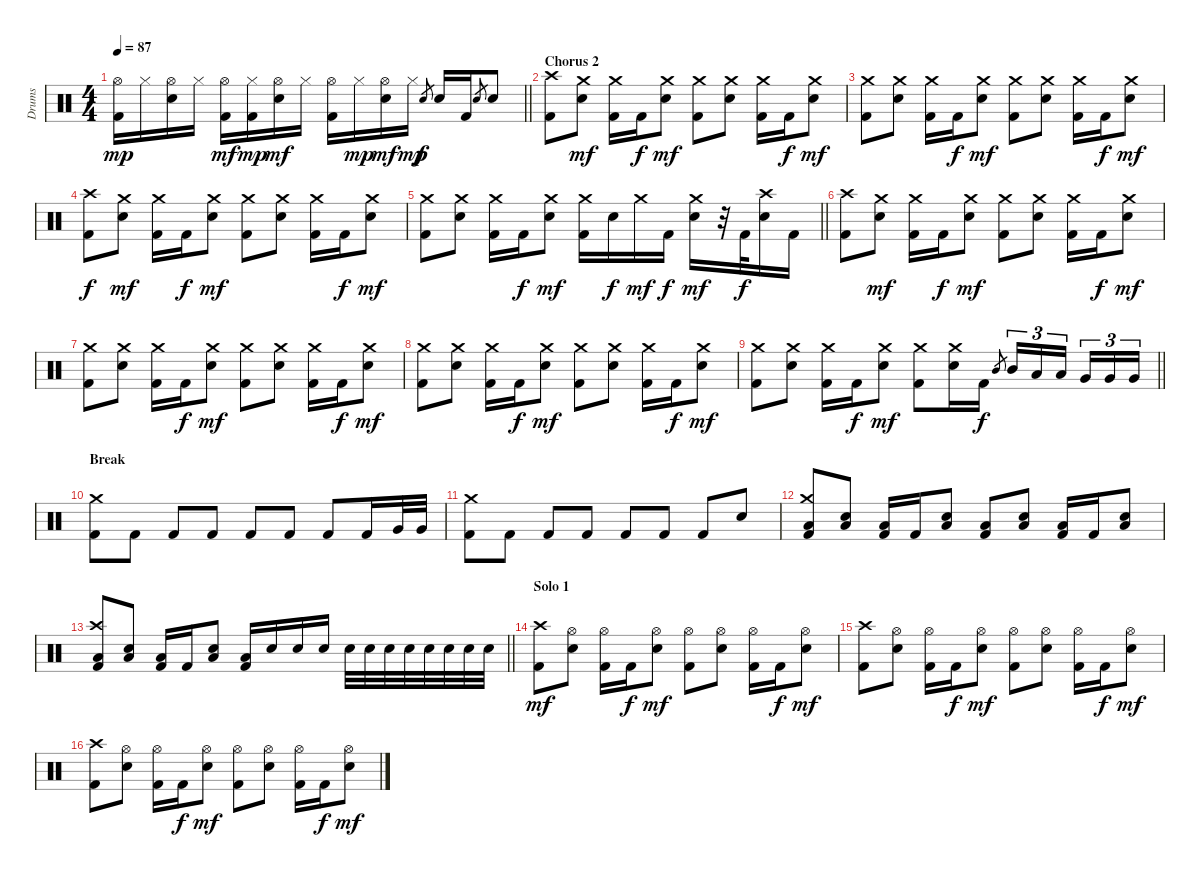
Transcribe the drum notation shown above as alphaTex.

\track ("Drums" "Drums") {instrument percussion}
\staff {score}
\articulation defaults
\ts (4 4)
\tempo 87
\clef neutral
\barLineRight lightlight
\ks c
("Hi-Hat (open)" "Kick (hit) 2").16{dy mp} "Hi-Hat (closed)".16 ("Hi-Hat (open)" "Electric Snare (hit)").16 "Hi-Hat (closed)".16 ("Hi-Hat (open)" "Kick (hit) 2").16{dy mf} ("Hi-Hat (closed)" "Kick (hit) 2").16{dy mp} ("Hi-Hat (open)" "Electric Snare (hit)").16{dy mf} "Hi-Hat (closed)".16 ("Hi-Hat (open)" "Kick (hit) 2").16 "Hi-Hat (closed)".16{dy mp} ("Hi-Hat (open)" "Electric Snare (hit)").16{dy mf} "Hi-Hat (closed)".16{dy mp} "Electric Snare (hit)".8{gr dy f} "Electric Snare (hit)".16 "Kick (hit) 2".16 "Electric Snare (hit)".8{gr} "Electric Snare (hit)".8 |
\section ("" "Chorus 2")
("Crash high (hit)" "Kick (hit) 2").8 ("Crash medium (hit)" "Electric Snare (hit)").8{dy mf} ("Crash medium (hit)" "Kick (hit) 2").16 "Kick (hit) 2".16{dy f} ("Crash medium (hit)" "Electric Snare (hit)").8{dy mf} ("Crash medium (hit)" "Kick (hit) 2").8 ("Crash medium (hit)" "Electric Snare (hit)").8 ("Crash medium (hit)" "Kick (hit) 2").16 "Kick (hit) 2".16{dy f} ("Crash medium (hit)" "Electric Snare (hit)").8{dy mf} |
("Crash medium (hit)" "Kick (hit) 2").8 ("Crash medium (hit)" "Electric Snare (hit)").8 ("Crash medium (hit)" "Kick (hit) 2").16 "Kick (hit) 2".16{dy f} ("Crash medium (hit)" "Electric Snare (hit)").8{dy mf} ("Crash medium (hit)" "Kick (hit) 2").8 ("Crash medium (hit)" "Electric Snare (hit)").8 ("Crash medium (hit)" "Kick (hit) 2").16 "Kick (hit) 2".16{dy f} ("Crash medium (hit)" "Electric Snare (hit)").8{dy mf} |
("Crash high (hit)" "Kick (hit) 2").8{dy f} ("Crash medium (hit)" "Electric Snare (hit)").8{dy mf} ("Crash medium (hit)" "Kick (hit) 2").16 "Kick (hit) 2".16{dy f} ("Crash medium (hit)" "Electric Snare (hit)").8{dy mf} ("Crash medium (hit)" "Kick (hit) 2").8 ("Crash medium (hit)" "Electric Snare (hit)").8 ("Crash medium (hit)" "Kick (hit) 2").16 "Kick (hit) 2".16{dy f} ("Crash medium (hit)" "Electric Snare (hit)").8{dy mf} |
\barLineRight lightlight
("Crash medium (hit)" "Kick (hit) 2").8 ("Crash medium (hit)" "Electric Snare (hit)").8 ("Crash medium (hit)" "Kick (hit) 2").16 "Kick (hit) 2".16{dy f} ("Crash medium (hit)" "Electric Snare (hit)").8{dy mf} ("Crash medium (hit)" "Kick (hit) 2").16 "Electric Snare (hit)".16{dy f} "Crash medium (hit)".16{dy mf} "Kick (hit) 2".16{dy f} ("Crash medium (hit)" "Electric Snare (hit)").16{dy mf} r.32 "Kick (hit) 2".32{dy f} ("Crash high (hit)" "Electric Snare (hit)").16 "Kick (hit) 2".16 |
("Crash high (hit)" "Kick (hit) 2").8 ("Crash medium (hit)" "Electric Snare (hit)").8{dy mf} ("Crash medium (hit)" "Kick (hit) 2").16 "Kick (hit) 2".16{dy f} ("Crash medium (hit)" "Electric Snare (hit)").8{dy mf} ("Crash medium (hit)" "Kick (hit) 2").8 ("Crash medium (hit)" "Electric Snare (hit)").8 ("Crash medium (hit)" "Kick (hit) 2").16 "Kick (hit) 2".16{dy f} ("Crash medium (hit)" "Electric Snare (hit)").8{dy mf} |
("Crash medium (hit)" "Kick (hit) 2").8 ("Crash medium (hit)" "Electric Snare (hit)").8 ("Crash medium (hit)" "Kick (hit) 2").16 "Kick (hit) 2".16{dy f} ("Crash medium (hit)" "Electric Snare (hit)").8{dy mf} ("Crash medium (hit)" "Kick (hit) 2").8 ("Crash medium (hit)" "Electric Snare (hit)").8 ("Crash medium (hit)" "Kick (hit) 2").16 "Kick (hit) 2".16{dy f} ("Crash medium (hit)" "Electric Snare (hit)").8{dy mf} |
("Crash medium (hit)" "Kick (hit) 2").8 ("Crash medium (hit)" "Electric Snare (hit)").8 ("Crash medium (hit)" "Kick (hit) 2").16 "Kick (hit) 2".16{dy f} ("Crash medium (hit)" "Electric Snare (hit)").8{dy mf} ("Crash medium (hit)" "Kick (hit) 2").8 ("Crash medium (hit)" "Electric Snare (hit)").8 ("Crash medium (hit)" "Kick (hit) 2").16 "Kick (hit) 2".16{dy f} ("Crash medium (hit)" "Electric Snare (hit)").8{dy mf} |
\barLineRight lightlight
("Crash medium (hit)" "Kick (hit) 2").8 ("Crash medium (hit)" "Electric Snare (hit)").8 ("Crash medium (hit)" "Kick (hit) 2").16 "Kick (hit) 2".16{dy f} ("Crash medium (hit)" "Electric Snare (hit)").8{dy mf} ("Crash medium (hit)" "Kick (hit) 2").8 ("Crash medium (hit)" "Electric Snare (hit)").16 "Kick (hit) 2".16{dy f} "Mid Tom (hit)".8{gr} "Mid Tom (hit)".16{tu (3 2)} "Low Tom (hit)".16{tu (3 2)} "Low Tom (hit)".16{tu (3 2) beam splitsecondary} "Very Low Tom (hit)".16{tu (3 2)} "Very Low Tom (hit)".16{tu (3 2)} "Very Low Tom (hit)".16{tu (3 2)} |
\section ("" "Break")
("Crash medium (hit)" "Kick (hit) 2").8 "Kick (hit) 2".8 "Kick (hit) 2".8 "Kick (hit) 2".8 "Kick (hit) 2".8 "Kick (hit) 2".8 "Kick (hit) 2".8 "Kick (hit) 2".16 "Very Low Tom (hit)".32 "Very Low Tom (hit)".32 |
("Crash medium (hit)" "Kick (hit) 2").8 "Kick (hit) 2".8 "Kick (hit) 2".8 "Kick (hit) 2".8 "Kick (hit) 2".8 "Kick (hit) 2".8 "Kick (hit) 2".8 "Electric Snare (hit)".8 |
("Crash medium (hit)" "Low Floor Tom (hit)" "Kick (hit) 2").8 ("Low Floor Tom (hit)" "Electric Snare (hit)").8 ("Low Floor Tom (hit)" "Kick (hit) 2").16 "Kick (hit) 2".16 ("Low Floor Tom (hit)" "Electric Snare (hit)").8 ("Low Floor Tom (hit)" "Kick (hit) 2").8 ("Low Floor Tom (hit)" "Electric Snare (hit)").8 ("Low Floor Tom (hit)" "Kick (hit) 2").16 "Kick (hit) 2".16 ("Low Floor Tom (hit)" "Electric Snare (hit)").8 |
\barLineRight lightlight
("Crash high (hit)" "Low Floor Tom (hit)" "Kick (hit) 2").8 ("Low Floor Tom (hit)" "Electric Snare (hit)").8 ("Low Floor Tom (hit)" "Kick (hit) 2").16 "Kick (hit) 2".16 ("Low Floor Tom (hit)" "Electric Snare (hit)").8 ("Low Floor Tom (hit)" "Kick (hit) 2").16 "Electric Snare (hit)".16 "Electric Snare (hit)".16 "Electric Snare (hit)".16 "Electric Snare (hit)".32 "Electric Snare (hit)".32 "Electric Snare (hit)".32 "Electric Snare (hit)".32 "Electric Snare (hit)".32 "Electric Snare (hit)".32 "Electric Snare (hit)".32 "Electric Snare (hit)".32 |
\section ("" "Solo 1")
("Crash high (hit)" "Kick (hit) 2").8{dy mf} ("Hi-Hat (open)" "Electric Snare (hit)").8 ("Hi-Hat (open)" "Kick (hit) 2").16 "Kick (hit) 2".16{dy f} ("Hi-Hat (open)" "Electric Snare (hit)").8{dy mf} ("Hi-Hat (open)" "Kick (hit) 2").8 ("Hi-Hat (open)" "Electric Snare (hit)").8 ("Hi-Hat (open)" "Kick (hit) 2").16 "Kick (hit) 2".16{dy f} ("Hi-Hat (open)" "Electric Snare (hit)").8{dy mf} |
("Crash high (hit)" "Kick (hit) 2").8 ("Hi-Hat (open)" "Electric Snare (hit)").8 ("Hi-Hat (open)" "Kick (hit) 2").16 "Kick (hit) 2".16{dy f} ("Hi-Hat (open)" "Electric Snare (hit)").8{dy mf} ("Hi-Hat (open)" "Kick (hit) 2").8 ("Hi-Hat (open)" "Electric Snare (hit)").8 ("Hi-Hat (open)" "Kick (hit) 2").16 "Kick (hit) 2".16{dy f} ("Hi-Hat (open)" "Electric Snare (hit)").8{dy mf} |
("Crash high (hit)" "Kick (hit) 2").8 ("Hi-Hat (open)" "Electric Snare (hit)").8 ("Hi-Hat (open)" "Kick (hit) 2").16 "Kick (hit) 2".16{dy f} ("Hi-Hat (open)" "Electric Snare (hit)").8{dy mf} ("Hi-Hat (open)" "Kick (hit) 2").8 ("Hi-Hat (open)" "Electric Snare (hit)").8 ("Hi-Hat (open)" "Kick (hit) 2").16 "Kick (hit) 2".16{dy f} ("Hi-Hat (open)" "Electric Snare (hit)").8{dy mf}
